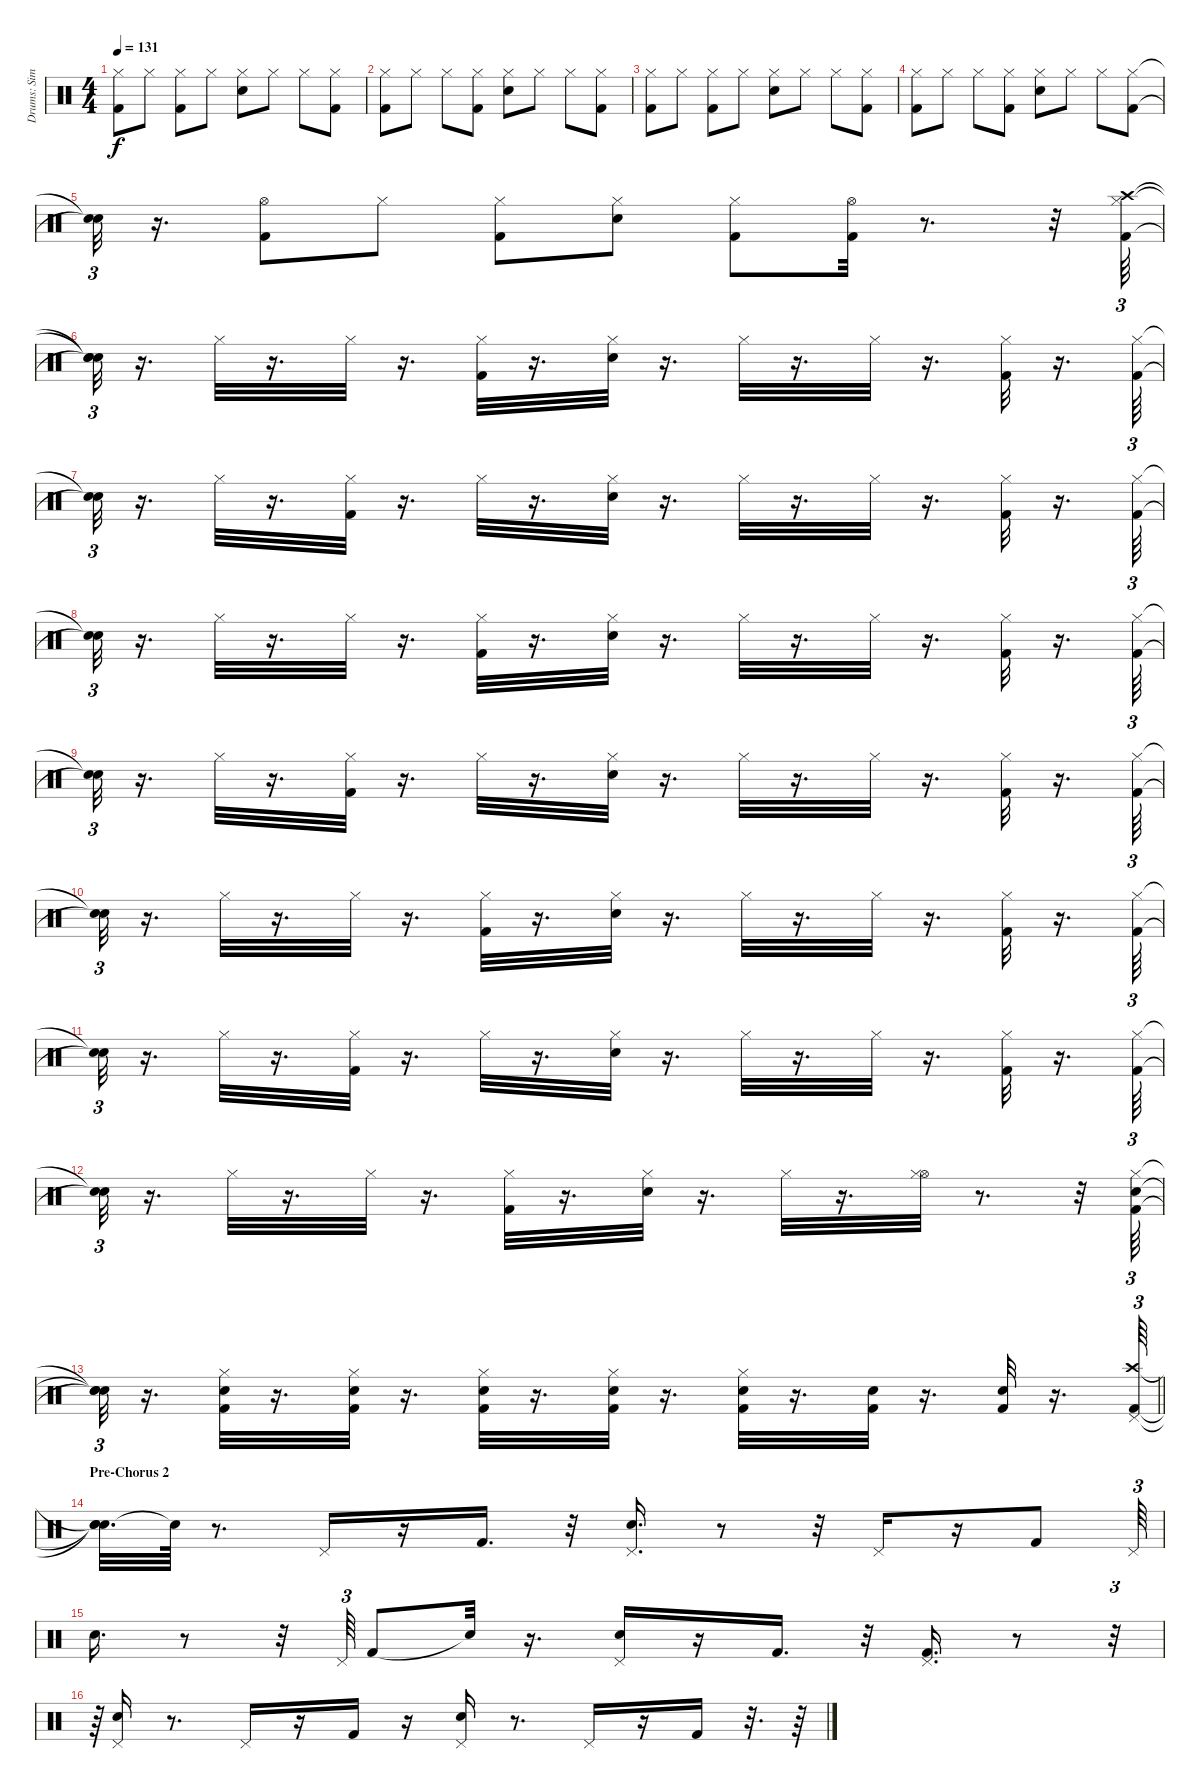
\track ("Drums: Simon Kirke" "Drums: Sim") {instrument percussion}
\staff {score}
\articulation defaults
\ts (4 4)
\tempo 131
\clef neutral
\ks c
("Hi-Hat (closed)" "Kick (hit) 2").8{dy f} "Hi-Hat (closed)".8 ("Hi-Hat (closed)" "Kick (hit) 2").8 "Hi-Hat (closed)".8 ("Hi-Hat (closed)" "Electric Snare (hit)").8 "Hi-Hat (closed)".8 "Hi-Hat (closed)".8 ("Hi-Hat (closed)" "Kick (hit) 2").8 |
("Hi-Hat (closed)" "Kick (hit) 2").8 "Hi-Hat (closed)".8 "Hi-Hat (closed)".8 ("Hi-Hat (closed)" "Kick (hit) 2").8 ("Hi-Hat (closed)" "Electric Snare (hit)").8 "Hi-Hat (closed)".8 "Hi-Hat (closed)".8 ("Hi-Hat (closed)" "Kick (hit) 2").8 |
("Hi-Hat (closed)" "Kick (hit) 2").8 "Hi-Hat (closed)".8 ("Hi-Hat (closed)" "Kick (hit) 2").8 "Hi-Hat (closed)".8 ("Hi-Hat (closed)" "Electric Snare (hit)").8 "Hi-Hat (closed)".8 "Hi-Hat (closed)".8 ("Hi-Hat (closed)" "Kick (hit) 2").8 |
("Hi-Hat (closed)" "Kick (hit) 2").8 "Hi-Hat (closed)".8 "Hi-Hat (closed)".8 ("Hi-Hat (closed)" "Kick (hit) 2").8 ("Hi-Hat (closed)" "Electric Snare (hit)").8 "Hi-Hat (closed)".8 "Hi-Hat (closed)".8 ("Hi-Hat (closed)" "Kick (hit) 2").8 |
("Snare (hit)"{t} "Snare (hit)"{t}).32{tu (3 2)} r.16{d} ("Hi-Hat (open)" "Kick (hit) 2").8 "Hi-Hat (closed)".8 ("Hi-Hat (closed)" "Kick (hit) 2").8 ("Electric Snare (hit)" "Hi-Hat (closed)").8 ("Kick (hit) 2" "Hi-Hat (closed)").8 ("Kick (hit) 2" "Hi-Hat (open)").32 r.8{d} r.32 ("Crash high (hit)" "Hi-Hat (closed)" "Kick (hit) 2").64{tu (3 2)} |
("Snare (hit)"{t} "Snare (hit)"{t} "Snare (hit)"{t}).32{tu (3 2)} r.16{d} "Hi-Hat (closed)".32 r.16{d} "Hi-Hat (closed)".32 r.16{d} ("Hi-Hat (closed)" "Kick (hit) 2").32 r.16{d} ("Hi-Hat (closed)" "Electric Snare (hit)").32 r.16{d} "Hi-Hat (closed)".32 r.16{d} "Hi-Hat (closed)".32 r.16{d} ("Hi-Hat (closed)" "Kick (hit) 2").32 r.16{d} ("Hi-Hat (closed)" "Kick (hit) 2").64{tu (3 2)} |
("Snare (hit)"{t} "Snare (hit)"{t}).32{tu (3 2)} r.16{d} "Hi-Hat (closed)".32 r.16{d} ("Hi-Hat (closed)" "Kick (hit) 2").32 r.16{d} "Hi-Hat (closed)".32 r.16{d} ("Hi-Hat (closed)" "Electric Snare (hit)").32 r.16{d} "Hi-Hat (closed)".32 r.16{d} "Hi-Hat (closed)".32 r.16{d} ("Hi-Hat (closed)" "Kick (hit) 2").32 r.16{d} ("Hi-Hat (closed)" "Kick (hit) 2").64{tu (3 2)} |
("Snare (hit)"{t} "Snare (hit)"{t}).32{tu (3 2)} r.16{d} "Hi-Hat (closed)".32 r.16{d} "Hi-Hat (closed)".32 r.16{d} ("Hi-Hat (closed)" "Kick (hit) 2").32 r.16{d} ("Hi-Hat (closed)" "Electric Snare (hit)").32 r.16{d} "Hi-Hat (closed)".32 r.16{d} "Hi-Hat (closed)".32 r.16{d} ("Hi-Hat (closed)" "Kick (hit) 2").32 r.16{d} ("Hi-Hat (closed)" "Kick (hit) 2").64{tu (3 2)} |
("Snare (hit)"{t} "Snare (hit)"{t}).32{tu (3 2)} r.16{d} "Hi-Hat (closed)".32 r.16{d} ("Hi-Hat (closed)" "Kick (hit) 2").32 r.16{d} "Hi-Hat (closed)".32 r.16{d} ("Hi-Hat (closed)" "Electric Snare (hit)").32 r.16{d} "Hi-Hat (closed)".32 r.16{d} "Hi-Hat (closed)".32 r.16{d} ("Hi-Hat (closed)" "Kick (hit) 2").32 r.16{d} ("Hi-Hat (closed)" "Kick (hit) 2").64{tu (3 2)} |
("Snare (hit)"{t} "Snare (hit)"{t}).32{tu (3 2)} r.16{d} "Hi-Hat (closed)".32 r.16{d} "Hi-Hat (closed)".32 r.16{d} ("Hi-Hat (closed)" "Kick (hit) 2").32 r.16{d} ("Hi-Hat (closed)" "Electric Snare (hit)").32 r.16{d} "Hi-Hat (closed)".32 r.16{d} "Hi-Hat (closed)".32 r.16{d} ("Hi-Hat (closed)" "Kick (hit) 2").32 r.16{d} ("Hi-Hat (closed)" "Kick (hit) 2").64{tu (3 2)} |
("Snare (hit)"{t} "Snare (hit)"{t}).32{tu (3 2)} r.16{d} "Hi-Hat (closed)".32 r.16{d} ("Hi-Hat (closed)" "Kick (hit) 2").32 r.16{d} "Hi-Hat (closed)".32 r.16{d} ("Hi-Hat (closed)" "Electric Snare (hit)").32 r.16{d} "Hi-Hat (closed)".32 r.16{d} "Hi-Hat (closed)".32 r.16{d} ("Hi-Hat (closed)" "Kick (hit) 2").32 r.16{d} ("Hi-Hat (closed)" "Kick (hit) 2").64{tu (3 2)} |
("Snare (hit)"{t} "Snare (hit)"{t}).32{tu (3 2)} r.16{d} "Hi-Hat (closed)".32 r.16{d} "Hi-Hat (closed)".32 r.16{d} ("Hi-Hat (closed)" "Kick (hit) 2").32 r.16{d} ("Hi-Hat (closed)" "Electric Snare (hit)").32 r.16{d} "Hi-Hat (closed)".32 r.16{d} ("Hi-Hat (open)" "Hi-Hat (closed)").32 r.8{d} r.32 ("Electric Snare (hit)" "Kick (hit) 2" "Hi-Hat (closed)").64{tu (3 2)} |
\barLineRight lightlight
("Snare (hit)"{t} "Snare (hit)"{t} "Snare (hit)"{t}).32{tu (3 2)} r.16{d} ("Electric Snare (hit)" "Hi-Hat (closed)" "Kick (hit) 2").32 r.16{d} ("Electric Snare (hit)" "Hi-Hat (closed)" "Kick (hit) 2").32 r.16{d} ("Electric Snare (hit)" "Hi-Hat (closed)" "Kick (hit) 2").32 r.16{d} ("Kick (hit) 2" "Electric Snare (hit)" "Hi-Hat (closed)").32 r.16{d} ("Electric Snare (hit)" "Kick (hit) 2" "Hi-Hat (closed)").32 r.16{d} ("Electric Snare (hit)" "Kick (hit) 2").32 r.16{d} ("Electric Snare (hit)" "Kick (hit) 2").32 r.16{d} ("Crash high (hit)" "Kick (hit) 2" "Pedal Hi-Hat (hit)").64{tu (3 2)} |
\section ("" "Pre-Chorus 2")
("Snare (hit)"{t} "Snare (hit)"{t} "Snare (hit)"{t}).32{d} "Snare (hit)"{t}.64 r.8{d} "Pedal Hi-Hat (hit)".16 r.16 "Kick (hit) 2".16{d} r.32 ("Pedal Hi-Hat (hit)" "Electric Snare (hit)").16{d} r.8 r.32 "Pedal Hi-Hat (hit)".16 r.16 "Kick (hit) 2".8 "Pedal Hi-Hat (hit)".64{tu (3 2)} |
"Electric Snare (hit)".16{d} r.8 r.32 "Pedal Hi-Hat (hit)".64{tu (3 2)} "Kick (hit) 2".8 "Snare (hit)"{t}.32 r.16{d} ("Pedal Hi-Hat (hit)" "Electric Snare (hit)").16 r.16 "Kick (hit) 2".16{d} r.32 ("Pedal Hi-Hat (hit)" "Kick (hit) 2").16{d} r.8 r.32{tu (3 2)} |
r.64{tu (3 2)} ("Electric Snare (hit)" "Pedal Hi-Hat (hit)").16 r.8{d} "Pedal Hi-Hat (hit)".16 r.16 "Kick (hit) 2".16 r.16 ("Electric Snare (hit)" "Pedal Hi-Hat (hit)").16 r.8{d} "Pedal Hi-Hat (hit)".16 r.16 "Kick (hit) 2".16 r.32{d} r.64
